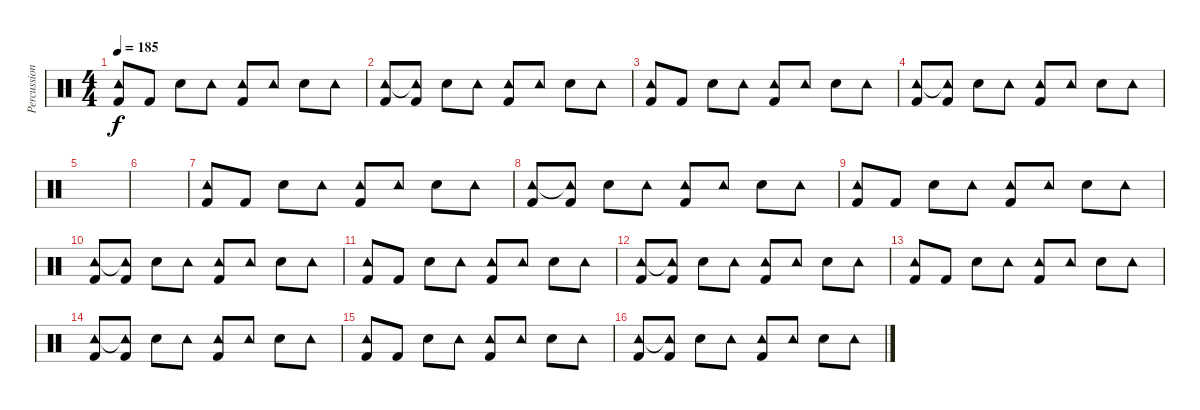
\track ("Percussion" "Percussion") {instrument percussion}
\staff {score}
\articulation defaults
\ts (4 4)
\tempo 185
\clef neutral
\ks c
("Tambourine (hit)" "Kick (hit) 2").8{dy f} "Kick (hit) 2".8 "Electric Snare (hit)".8 "Tambourine (hit)".8 ("Tambourine (hit)" "Kick (hit) 2").8 "Tambourine (hit)".8 "Snare (hit) 2".8 "Tambourine (hit)".8 |
("Tambourine (hit)" "Kick (hit) 2").8 ("Tambourine (hit)"{t} "Kick (hit) 2").8 "Electric Snare (hit)".8 "Tambourine (hit)".8 ("Tambourine (hit)" "Kick (hit) 2").8 "Tambourine (hit)".8 "Electric Snare (hit)".8 "Tambourine (hit)".8 |
("Tambourine (hit)" "Kick (hit) 2").8 "Kick (hit) 2".8 "Electric Snare (hit)".8 "Tambourine (hit)".8 ("Tambourine (hit)" "Kick (hit) 2").8 "Tambourine (hit)".8 "Snare (hit) 2".8 "Tambourine (hit)".8 |
("Tambourine (hit)" "Kick (hit) 2").8 ("Tambourine (hit)"{t} "Kick (hit) 2").8 "Electric Snare (hit)".8 "Tambourine (hit)".8 ("Tambourine (hit)" "Kick (hit) 2").8 "Tambourine (hit)".8 "Electric Snare (hit)".8 "Tambourine (hit)".8 |
|
|
("Tambourine (hit)" "Kick (hit) 2").8 "Kick (hit) 2".8 "Electric Snare (hit)".8 "Tambourine (hit)".8 ("Tambourine (hit)" "Kick (hit) 2").8 "Tambourine (hit)".8 "Snare (hit) 2".8 "Tambourine (hit)".8 |
("Tambourine (hit)" "Kick (hit) 2").8 ("Tambourine (hit)"{t} "Kick (hit) 2").8 "Electric Snare (hit)".8 "Tambourine (hit)".8 ("Tambourine (hit)" "Kick (hit) 2").8 "Tambourine (hit)".8 "Electric Snare (hit)".8 "Tambourine (hit)".8 |
("Tambourine (hit)" "Kick (hit) 2").8 "Kick (hit) 2".8 "Electric Snare (hit)".8 "Tambourine (hit)".8 ("Tambourine (hit)" "Kick (hit) 2").8 "Tambourine (hit)".8 "Snare (hit) 2".8 "Tambourine (hit)".8 |
("Tambourine (hit)" "Kick (hit) 2").8 ("Tambourine (hit)"{t} "Kick (hit) 2").8 "Electric Snare (hit)".8 "Tambourine (hit)".8 ("Tambourine (hit)" "Kick (hit) 2").8 "Tambourine (hit)".8 "Electric Snare (hit)".8 "Tambourine (hit)".8 |
("Tambourine (hit)" "Kick (hit) 2").8 "Kick (hit) 2".8 "Electric Snare (hit)".8 "Tambourine (hit)".8 ("Tambourine (hit)" "Kick (hit) 2").8 "Tambourine (hit)".8 "Snare (hit) 2".8 "Tambourine (hit)".8 |
("Tambourine (hit)" "Kick (hit) 2").8 ("Tambourine (hit)"{t} "Kick (hit) 2").8 "Electric Snare (hit)".8 "Tambourine (hit)".8 ("Tambourine (hit)" "Kick (hit) 2").8 "Tambourine (hit)".8 "Electric Snare (hit)".8 "Tambourine (hit)".8 |
("Tambourine (hit)" "Kick (hit) 2").8 "Kick (hit) 2".8 "Electric Snare (hit)".8 "Tambourine (hit)".8 ("Tambourine (hit)" "Kick (hit) 2").8 "Tambourine (hit)".8 "Snare (hit) 2".8 "Tambourine (hit)".8 |
("Tambourine (hit)" "Kick (hit) 2").8 ("Tambourine (hit)"{t} "Kick (hit) 2").8 "Electric Snare (hit)".8 "Tambourine (hit)".8 ("Tambourine (hit)" "Kick (hit) 2").8 "Tambourine (hit)".8 "Electric Snare (hit)".8 "Tambourine (hit)".8 |
("Tambourine (hit)" "Kick (hit) 2").8 "Kick (hit) 2".8 "Electric Snare (hit)".8 "Tambourine (hit)".8 ("Tambourine (hit)" "Kick (hit) 2").8 "Tambourine (hit)".8 "Snare (hit) 2".8 "Tambourine (hit)".8 |
("Tambourine (hit)" "Kick (hit) 2").8 ("Tambourine (hit)"{t} "Kick (hit) 2").8 "Electric Snare (hit)".8 "Tambourine (hit)".8 ("Tambourine (hit)" "Kick (hit) 2").8 "Tambourine (hit)".8 "Electric Snare (hit)".8 "Tambourine (hit)".8
